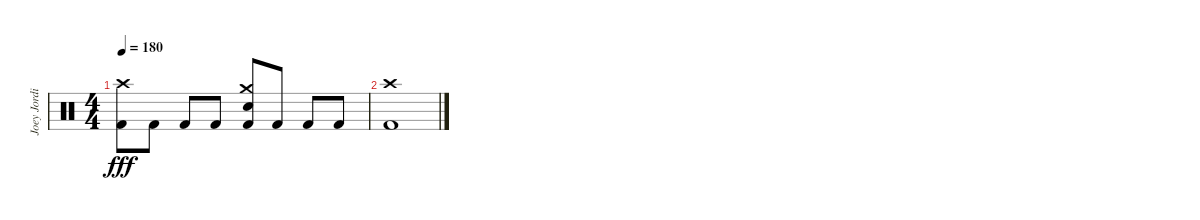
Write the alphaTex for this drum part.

\track ("Joey Jordison" "Joey Jordi") {instrument percussion}
\staff {score}
\articulation defaults
\ts (4 4)
\tempo 180
\clef neutral
\ks c
("Crash high (hit)" "Kick (hit) 2").8{dy fff} "Kick (hit) 2".8 "Kick (hit) 2".8 "Kick (hit) 2".8 ("Crash medium (hit)" "Electric Snare (hit)" "Kick (hit) 2").8 "Kick (hit) 2".8 "Kick (hit) 2".8 "Kick (hit) 2".8 |
("Crash high (hit)" "Kick (hit) 2").1
